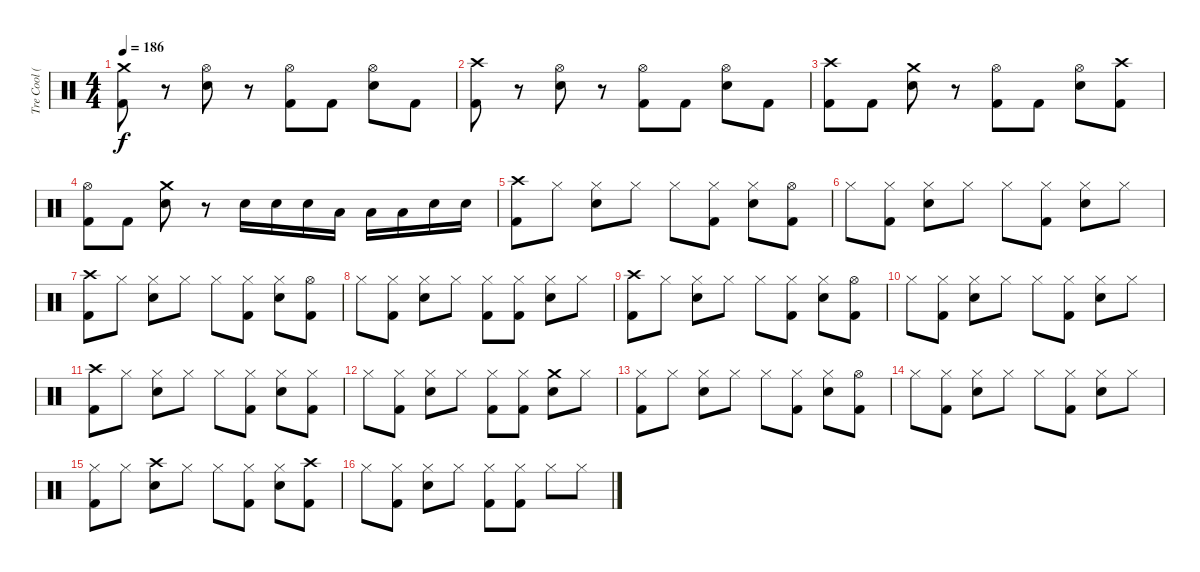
\track ("Tre Cool (Drums)" "Tre Cool (") {instrument percussion}
\staff {score}
\articulation defaults
\ts (4 4)
\tempo 186
\clef neutral
\ks c
("Kick (hit) 2" "Crash medium (hit)").8{dy f} r.8 ("Snare (hit) 2" "Hi-Hat (open)").8 r.8 ("Kick (hit) 2" "Hi-Hat (open)").8 "Kick (hit) 2".8 ("Snare (hit) 2" "Hi-Hat (open)").8 "Kick (hit) 2".8 |
("Kick (hit) 2" "Crash high (hit)").8 r.8 ("Snare (hit) 2" "Hi-Hat (open)").8 r.8 ("Kick (hit) 2" "Hi-Hat (open)").8 "Kick (hit) 2".8 ("Snare (hit) 2" "Hi-Hat (open)").8 "Kick (hit) 2".8 |
("Crash high (hit)" "Kick (hit) 2").8 "Kick (hit) 2".8 ("Crash medium (hit)" "Snare (hit) 2").8 r.8 ("Hi-Hat (open)" "Kick (hit) 2").8 "Kick (hit) 2".8 ("Hi-Hat (open)" "Snare (hit) 2").8 ("Kick (hit) 2" "Crash high (hit)").8 |
("Hi-Hat (open)" "Kick (hit) 2").8 "Kick (hit) 2".8 ("Snare (hit) 2" "Crash medium (hit)").8 r.8 "Snare (hit) 2".16 "Snare (hit) 2".16 "Snare (hit) 2".16 "Low Tom (hit)".16 "Low Tom (hit)".16 "Low Tom (hit)".16 "Snare (hit) 2".16 "Snare (hit) 2".16 |
("Crash high (hit)" "Kick (hit) 2").8 "Hi-Hat (closed)".8 ("Hi-Hat (closed)" "Snare (hit) 2").8 "Hi-Hat (closed)".8 "Hi-Hat (closed)".8 ("Kick (hit) 2" "Hi-Hat (closed)").8 ("Hi-Hat (closed)" "Snare (hit) 2").8 ("Kick (hit) 2" "Hi-Hat (open)").8 |
"Hi-Hat (closed)".8 ("Kick (hit) 2" "Hi-Hat (closed)").8 ("Hi-Hat (closed)" "Snare (hit) 2").8 "Hi-Hat (closed)".8 "Hi-Hat (closed)".8 ("Kick (hit) 2" "Hi-Hat (closed)").8 ("Hi-Hat (closed)" "Snare (hit) 2").8 "Hi-Hat (closed)".8 |
("Crash high (hit)" "Kick (hit) 2").8 "Hi-Hat (closed)".8 ("Hi-Hat (closed)" "Snare (hit) 2").8 "Hi-Hat (closed)".8 "Hi-Hat (closed)".8 ("Kick (hit) 2" "Hi-Hat (closed)").8 ("Snare (hit) 2" "Hi-Hat (closed)").8 ("Kick (hit) 2" "Hi-Hat (open)").8 |
"Hi-Hat (closed)".8 ("Kick (hit) 2" "Hi-Hat (closed)").8 ("Hi-Hat (closed)" "Snare (hit) 2").8 "Hi-Hat (closed)".8 ("Hi-Hat (closed)" "Kick (hit) 2").8 ("Kick (hit) 2" "Hi-Hat (closed)").8 ("Hi-Hat (closed)" "Snare (hit) 2").8 "Hi-Hat (closed)".8 |
("Kick (hit) 2" "Crash high (hit)").8 "Hi-Hat (closed)".8 ("Snare (hit) 2" "Hi-Hat (closed)").8 "Hi-Hat (closed)".8 "Hi-Hat (closed)".8 ("Kick (hit) 2" "Hi-Hat (closed)").8 ("Snare (hit) 2" "Hi-Hat (closed)").8 ("Kick (hit) 2" "Hi-Hat (open)").8 |
"Hi-Hat (closed)".8 ("Kick (hit) 2" "Hi-Hat (closed)").8 ("Snare (hit) 2" "Hi-Hat (closed)").8 "Hi-Hat (closed)".8 "Hi-Hat (closed)".8 ("Kick (hit) 2" "Hi-Hat (closed)").8 ("Snare (hit) 2" "Hi-Hat (closed)").8 "Hi-Hat (closed)".8 |
("Crash high (hit)" "Kick (hit) 2").8 "Hi-Hat (closed)".8 ("Snare (hit) 2" "Hi-Hat (closed)").8 "Hi-Hat (closed)".8 "Hi-Hat (closed)".8 ("Kick (hit) 2" "Hi-Hat (closed)").8 ("Snare (hit) 2" "Hi-Hat (closed)").8 ("Kick (hit) 2" "Hi-Hat (closed)").8 |
"Hi-Hat (closed)".8 ("Kick (hit) 2" "Hi-Hat (closed)").8 ("Snare (hit) 2" "Hi-Hat (closed)").8 "Hi-Hat (closed)".8 ("Kick (hit) 2" "Hi-Hat (closed)").8 ("Kick (hit) 2" "Hi-Hat (closed)").8 ("Crash medium (hit)" "Snare (hit) 2").8 "Hi-Hat (closed)".8 |
("Kick (hit) 2" "Hi-Hat (closed)").8 "Hi-Hat (closed)".8 ("Snare (hit) 2" "Hi-Hat (closed)").8 "Hi-Hat (closed)".8 "Hi-Hat (closed)".8 ("Kick (hit) 2" "Hi-Hat (closed)").8 ("Snare (hit) 2" "Hi-Hat (closed)").8 ("Kick (hit) 2" "Hi-Hat (open)").8 |
"Hi-Hat (closed)".8 ("Kick (hit) 2" "Hi-Hat (closed)").8 ("Snare (hit) 2" "Hi-Hat (closed)").8 "Hi-Hat (closed)".8 "Hi-Hat (closed)".8 ("Kick (hit) 2" "Hi-Hat (closed)").8 ("Snare (hit) 2" "Hi-Hat (closed)").8 "Hi-Hat (closed)".8 |
("Kick (hit) 2" "Hi-Hat (closed)").8 "Hi-Hat (closed)".8 ("Crash high (hit)" "Snare (hit) 2").8 "Hi-Hat (closed)".8 "Hi-Hat (closed)".8 ("Kick (hit) 2" "Hi-Hat (closed)").8 ("Snare (hit) 2" "Hi-Hat (closed)").8 ("Crash high (hit)" "Kick (hit) 2").8 |
"Hi-Hat (closed)".8 ("Kick (hit) 2" "Hi-Hat (closed)").8 ("Snare (hit) 2" "Hi-Hat (closed)").8 "Hi-Hat (closed)".8 ("Kick (hit) 2" "Hi-Hat (closed)").8 ("Kick (hit) 2" "Hi-Hat (closed)").8 "Hi-Hat (closed)".8 "Hi-Hat (closed)".8
